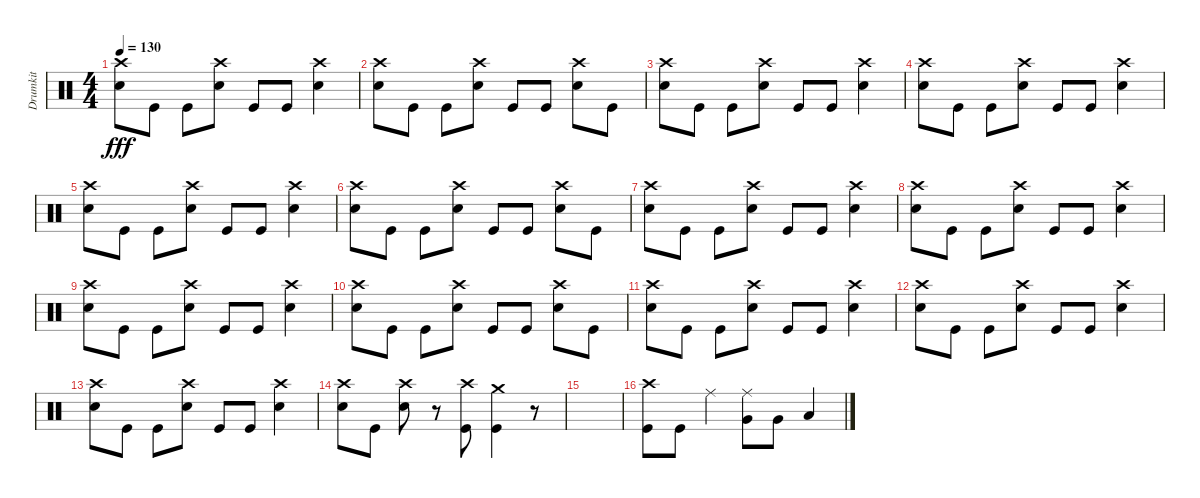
\track ("Drumkit" "Drumkit") {instrument percussion}
\staff {score}
\articulation defaults
\ts (4 4)
\tempo 130
\clef neutral
\ks c
("Snare (hit) 2" "Crash high (hit)").8{dy fff} "Kick (hit)".8 "Kick (hit)".8 ("Snare (hit) 2" "Crash high (hit)").8 "Kick (hit)".8 "Kick (hit)".8 ("Snare (hit) 2" "Crash high (hit)").4 |
("Snare (hit) 2" "Crash high (hit)").8 "Kick (hit)".8 "Kick (hit)".8 ("Snare (hit) 2" "Crash high (hit)").8 "Kick (hit)".8 "Kick (hit)".8 ("Snare (hit) 2" "Crash high (hit)").8 "Kick (hit)".8 |
("Snare (hit) 2" "Crash high (hit)").8 "Kick (hit)".8 "Kick (hit)".8 ("Snare (hit) 2" "Crash high (hit)").8 "Kick (hit)".8 "Kick (hit)".8 ("Snare (hit) 2" "Crash high (hit)").4 |
("Snare (hit) 2" "Crash high (hit)").8 "Kick (hit)".8 "Kick (hit)".8 ("Snare (hit) 2" "Crash high (hit)").8 "Kick (hit)".8 "Kick (hit)".8 ("Snare (hit) 2" "Crash high (hit)").4 |
("Snare (hit) 2" "Crash high (hit)").8 "Kick (hit)".8 "Kick (hit)".8 ("Snare (hit) 2" "Crash high (hit)").8 "Kick (hit)".8 "Kick (hit)".8 ("Snare (hit) 2" "Crash high (hit)").4 |
("Snare (hit) 2" "Crash high (hit)").8 "Kick (hit)".8 "Kick (hit)".8 ("Snare (hit) 2" "Crash high (hit)").8 "Kick (hit)".8 "Kick (hit)".8 ("Snare (hit) 2" "Crash high (hit)").8 "Kick (hit)".8 |
("Snare (hit) 2" "Crash high (hit)").8 "Kick (hit)".8 "Kick (hit)".8 ("Snare (hit) 2" "Crash high (hit)").8 "Kick (hit)".8 "Kick (hit)".8 ("Snare (hit) 2" "Crash high (hit)").4 |
("Snare (hit) 2" "Crash high (hit)").8 "Kick (hit)".8 "Kick (hit)".8 ("Snare (hit) 2" "Crash high (hit)").8 "Kick (hit)".8 "Kick (hit)".8 ("Snare (hit) 2" "Crash high (hit)").4 |
("Snare (hit) 2" "Crash high (hit)").8 "Kick (hit)".8 "Kick (hit)".8 ("Snare (hit) 2" "Crash high (hit)").8 "Kick (hit)".8 "Kick (hit)".8 ("Snare (hit) 2" "Crash high (hit)").4 |
("Snare (hit) 2" "Crash high (hit)").8 "Kick (hit)".8 "Kick (hit)".8 ("Snare (hit) 2" "Crash high (hit)").8 "Kick (hit)".8 "Kick (hit)".8 ("Snare (hit) 2" "Crash high (hit)").8 "Kick (hit)".8 |
("Snare (hit) 2" "Crash high (hit)").8 "Kick (hit)".8 "Kick (hit)".8 ("Snare (hit) 2" "Crash high (hit)").8 "Kick (hit)".8 "Kick (hit)".8 ("Snare (hit) 2" "Crash high (hit)").4 |
("Snare (hit) 2" "Crash high (hit)").8 "Kick (hit)".8 "Kick (hit)".8 ("Snare (hit) 2" "Crash high (hit)").8 "Kick (hit)".8 "Kick (hit)".8 ("Snare (hit) 2" "Crash high (hit)").4 |
("Snare (hit) 2" "Crash high (hit)").8 "Kick (hit)".8 "Kick (hit)".8 ("Snare (hit) 2" "Crash high (hit)").8 "Kick (hit)".8 "Kick (hit)".8 ("Snare (hit) 2" "Crash high (hit)").4 |
("Snare (hit) 2" "Crash high (hit)").8 "Kick (hit)".8 ("Crash high (hit)" "Snare (hit) 2").8 r.8 ("Kick (hit)" "Crash high (hit)").8 ("Kick (hit)" "Crash medium (hit)").4 r.8 |
|
("Kick (hit)" "Crash high (hit)").8 "Kick (hit)".8 "Ride (middle)".4 ("Ride (middle)" "Very Low Tom (hit)").8 "Very Low Tom (hit)".8 "Low Tom (hit)".4
